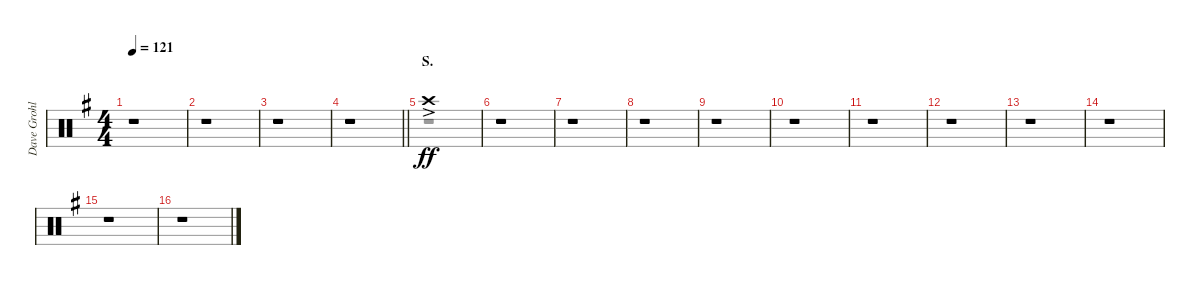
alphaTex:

\track ("Dave Grohl" "Dave Grohl") {instrument percussion}
\staff {score}
\articulation defaults
\voice
\ts (4 4)
\tempo 121
\clef neutral
\ks eminor
r.1{dy ff} |
r.1 |
r.1 |
\barLineRight lightlight
r.1 |
\section ("" "S.")
"Crash high (hit)"{ac}.1 |
r.1 |
r.1 |
r.1 |
r.1 |
r.1 |
r.1 |
r.1 |
r.1 |
r.1 |
r.1 |
r.1
\voice
\clef neutral
\ottava regular
\simile none
\ks eminor
r.1{dy f} |
r.1 |
r.1 |
\barLineRight lightlight
r.1 |
r.1 |
r.1 |
r.1 |
r.1 |
r.1 |
r.1 |
r.1 |
r.1 |
r.1 |
r.1 |
r.1 |
r.1
